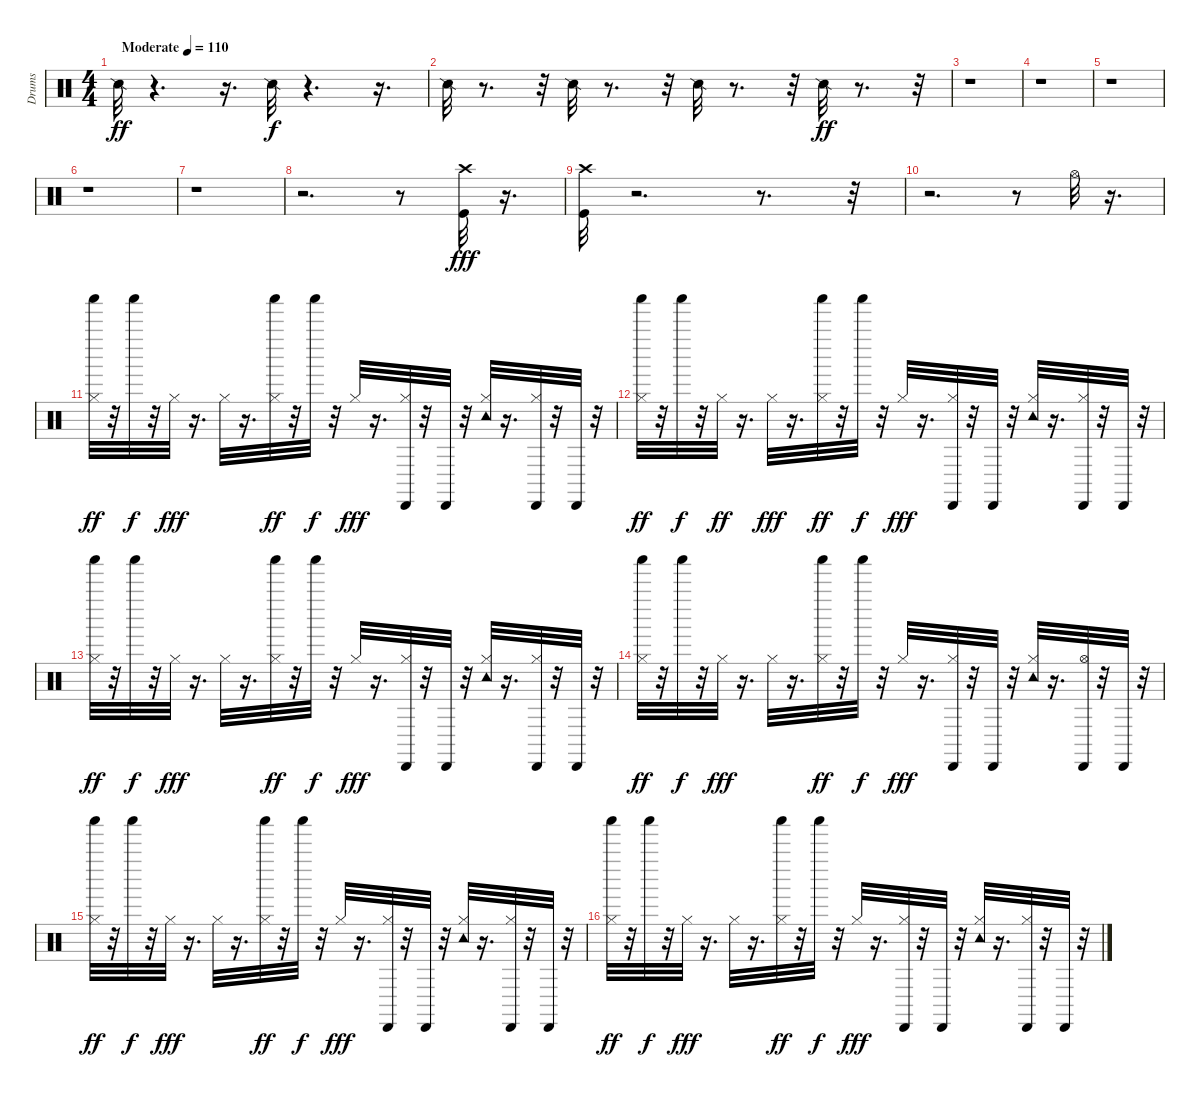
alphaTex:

\track ("Drums               " "Drums     ") {instrument percussion}
\staff {score}
\articulation defaults
\ts (4 4)
\tempo (110 "Moderate")
\clef neutral
\ks c "Snare (side stick) 2".32{dy ff}
r.4{d} r.16{d} "Snare (side stick) 2".32{dy f} r.4{d} r.16{d} |
"Snare (side stick) 2".32 r.8{d} r.32 "Snare (side stick) 2".32 r.8{d} r.32 "Snare (side stick) 2".32 r.8{d} r.32 "Snare (side stick) 2".32{dy ff} r.8{d} r.32 |
r.1 |
r.1 |
r.1 |
r.1 |
r.1 |
r.2{d} r.8 ("Kick (hit)" "Crash high (hit)").32{dy fff volume 12} r.16{d} |
("Kick (hit)" "Crash high (hit)").32 r.2{d} r.8{d} r.32 |
r.2{d} r.8 "Hi-Hat (open)".32 r.16{d} |
("Hi-Hat (closed)" "Shaker (hit)").32{dy ff} r.32 "Shaker (hit)".32{dy f} r.32 "Hi-Hat (closed)".32{dy fff} r.16{d} "Hi-Hat (closed)".32 r.16{d} ("Hi-Hat (closed)" "Shaker (hit)").32{dy ff} r.32 "Shaker (hit)".32{dy f} r.32 "Hi-Hat (closed)".32{dy fff} r.16{d} ("Hi-Hat (closed)" "Cabasa (hit)").32 r.32 "Cabasa (hit)".32 r.32 ("Hi-Hat (closed)" "Tambourine (hit)").32 r.16{d} ("Hi-Hat (closed)" "Cabasa (hit)").32 r.32 "Cabasa (hit)".32 r.32 |
("Hi-Hat (closed)" "Shaker (hit)").32{dy ff} r.32 "Shaker (hit)".32{dy f} r.32 "Hi-Hat (closed)".32{dy ff} r.16{d} "Hi-Hat (closed)".32{dy fff} r.16{d} ("Hi-Hat (closed)" "Shaker (hit)").32{dy ff} r.32 "Shaker (hit)".32{dy f} r.32 "Hi-Hat (closed)".32{dy fff} r.16{d} ("Hi-Hat (closed)" "Cabasa (hit)").32 r.32 "Cabasa (hit)".32 r.32 ("Hi-Hat (closed)" "Tambourine (hit)").32 r.16{d} ("Hi-Hat (closed)" "Cabasa (hit)").32 r.32 "Cabasa (hit)".32 r.32 |
("Hi-Hat (closed)" "Shaker (hit)").32{dy ff} r.32 "Shaker (hit)".32{dy f} r.32 "Hi-Hat (closed)".32{dy fff} r.16{d} "Hi-Hat (closed)".32 r.16{d} ("Hi-Hat (closed)" "Shaker (hit)").32{dy ff} r.32 "Shaker (hit)".32{dy f} r.32 "Hi-Hat (closed)".32{dy fff} r.16{d} ("Hi-Hat (closed)" "Cabasa (hit)").32 r.32 "Cabasa (hit)".32 r.32 ("Hi-Hat (closed)" "Tambourine (hit)").32 r.16{d} ("Hi-Hat (closed)" "Cabasa (hit)").32 r.32 "Cabasa (hit)".32 r.32 |
("Hi-Hat (closed)" "Shaker (hit)").32{dy ff} r.32 "Shaker (hit)".32{dy f} r.32 "Hi-Hat (closed)".32{dy fff} r.16{d} "Hi-Hat (closed)".32 r.16{d} ("Hi-Hat (closed)" "Shaker (hit)").32{dy ff} r.32 "Shaker (hit)".32{dy f} r.32 "Hi-Hat (closed)".32{dy fff} r.16{d} ("Hi-Hat (closed)" "Cabasa (hit)").32 r.32 "Cabasa (hit)".32 r.32 ("Hi-Hat (closed)" "Tambourine (hit)").32 r.16{d} ("Hi-Hat (open)" "Cabasa (hit)").32 r.32 "Cabasa (hit)".32 r.32 |
("Hi-Hat (closed)" "Shaker (hit)").32{dy ff} r.32 "Shaker (hit)".32{dy f} r.32 "Hi-Hat (closed)".32{dy fff} r.16{d} "Hi-Hat (closed)".32 r.16{d} ("Hi-Hat (closed)" "Shaker (hit)").32{dy ff} r.32 "Shaker (hit)".32{dy f} r.32 "Hi-Hat (closed)".32{dy fff} r.16{d} ("Hi-Hat (closed)" "Cabasa (hit)").32 r.32 "Cabasa (hit)".32 r.32 ("Hi-Hat (closed)" "Tambourine (hit)").32 r.16{d} ("Hi-Hat (closed)" "Cabasa (hit)").32 r.32 "Cabasa (hit)".32 r.32 |
("Hi-Hat (closed)" "Shaker (hit)").32{dy ff} r.32 "Shaker (hit)".32{dy f} r.32 "Hi-Hat (closed)".32{dy fff} r.16{d} "Hi-Hat (closed)".32 r.16{d} ("Hi-Hat (closed)" "Shaker (hit)").32{dy ff} r.32 "Shaker (hit)".32{dy f} r.32 "Hi-Hat (closed)".32{dy fff} r.16{d} ("Hi-Hat (closed)" "Cabasa (hit)").32 r.32 "Cabasa (hit)".32 r.32 ("Hi-Hat (closed)" "Tambourine (hit)").32 r.16{d} ("Hi-Hat (closed)" "Cabasa (hit)").32 r.32 "Cabasa (hit)".32 r.32
